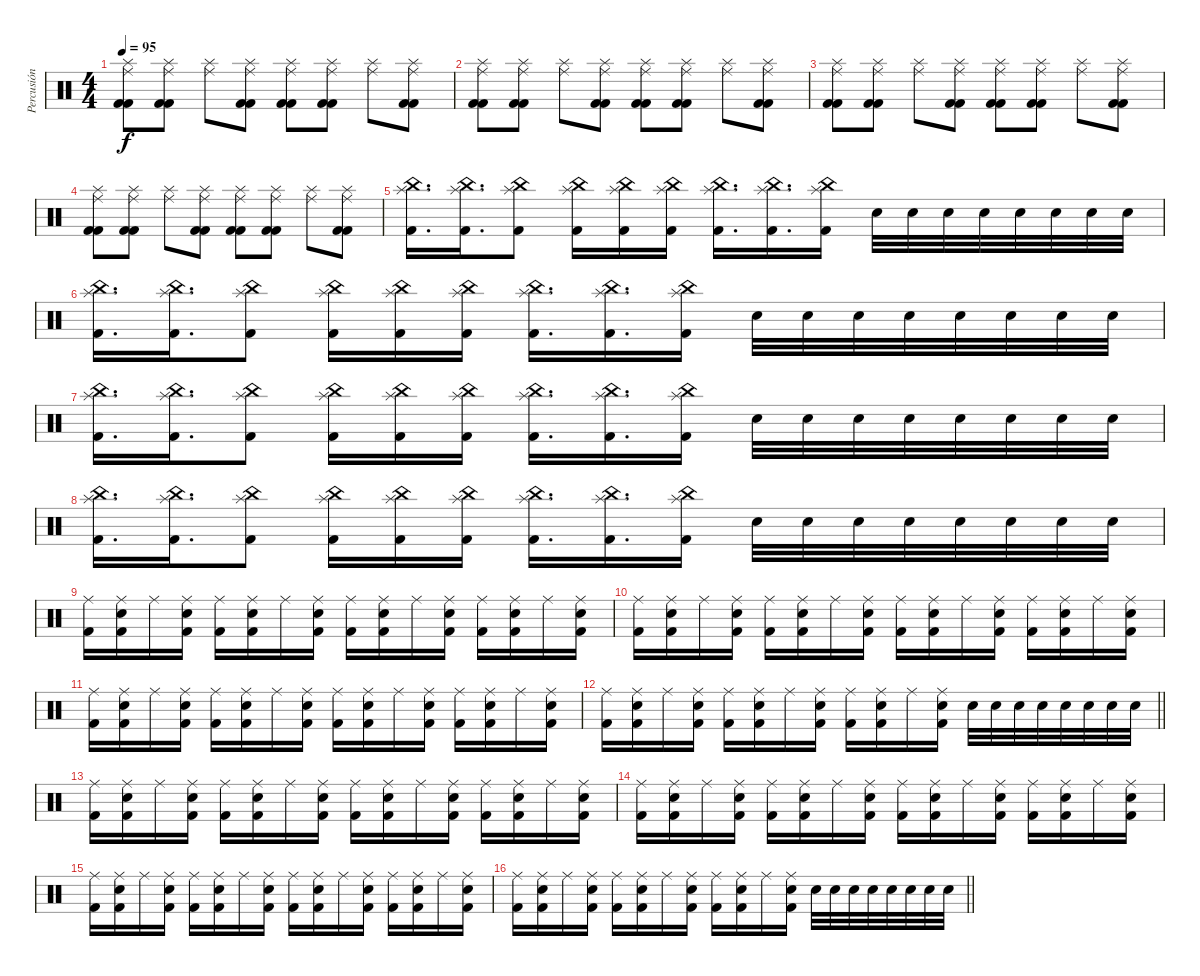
\track ("Percusión" "Percusión") {instrument percussion}
\staff {score}
\articulation defaults
\ts (4 4)
\tempo 95
\clef neutral
\ks c
("Splash (hit)" "Ride (middle)" "Kick (hit) 2" "Kick (hit) 2").8{dy f} ("Splash (hit)" "Ride (middle)" "Kick (hit) 2" "Kick (hit) 2").8 ("Splash (hit)" "Ride (middle)").8 ("Splash (hit)" "Ride (middle)" "Kick (hit) 2" "Kick (hit) 2").8 ("Splash (hit)" "Ride (middle)" "Kick (hit) 2" "Kick (hit) 2").8 ("Splash (hit)" "Ride (middle)" "Kick (hit) 2" "Kick (hit) 2").8 ("Splash (hit)" "Ride (middle)").8 ("Splash (hit)" "Ride (middle)" "Kick (hit) 2" "Kick (hit) 2").8 |
("Splash (hit)" "Ride (middle)" "Kick (hit) 2" "Kick (hit) 2").8 ("Splash (hit)" "Ride (middle)" "Kick (hit) 2" "Kick (hit) 2").8 ("Splash (hit)" "Ride (middle)").8 ("Splash (hit)" "Ride (middle)" "Kick (hit) 2" "Kick (hit) 2").8 ("Splash (hit)" "Ride (middle)" "Kick (hit) 2" "Kick (hit) 2").8 ("Splash (hit)" "Ride (middle)" "Kick (hit) 2" "Kick (hit) 2").8 ("Splash (hit)" "Ride (middle)").8 ("Splash (hit)" "Ride (middle)" "Kick (hit) 2" "Kick (hit) 2").8 |
("Splash (hit)" "Ride (middle)" "Kick (hit) 2" "Kick (hit) 2").8 ("Splash (hit)" "Ride (middle)" "Kick (hit) 2" "Kick (hit) 2").8 ("Splash (hit)" "Ride (middle)").8 ("Splash (hit)" "Ride (middle)" "Kick (hit) 2" "Kick (hit) 2").8 ("Splash (hit)" "Ride (middle)" "Kick (hit) 2" "Kick (hit) 2").8 ("Splash (hit)" "Ride (middle)" "Kick (hit) 2" "Kick (hit) 2").8 ("Splash (hit)" "Ride (middle)").8 ("Splash (hit)" "Ride (middle)" "Kick (hit) 2" "Kick (hit) 2").8 |
("Splash (hit)" "Ride (middle)" "Kick (hit) 2" "Kick (hit) 2").8 ("Splash (hit)" "Ride (middle)" "Kick (hit) 2" "Kick (hit) 2").8 ("Splash (hit)" "Ride (middle)").8 ("Splash (hit)" "Ride (middle)" "Kick (hit) 2" "Kick (hit) 2").8 ("Splash (hit)" "Ride (middle)" "Kick (hit) 2" "Kick (hit) 2").8 ("Splash (hit)" "Ride (middle)" "Kick (hit) 2" "Kick (hit) 2").8 ("Splash (hit)" "Ride (middle)").8 ("Splash (hit)" "Ride (middle)" "Kick (hit) 2" "Kick (hit) 2").8 |
("China (hit)" "Splash (hit)" "Kick (hit) 2").16{d} ("China (hit)" "Splash (hit)" "Kick (hit) 2").16{d} ("China (hit)" "Splash (hit)" "Kick (hit) 2").8 ("China (hit)" "Splash (hit)" "Kick (hit) 2").16 ("China (hit)" "Splash (hit)" "Kick (hit) 2").16 ("China (hit)" "Splash (hit)" "Kick (hit) 2").16 ("China (hit)" "Splash (hit)" "Kick (hit) 2").16{d} ("China (hit)" "Splash (hit)" "Kick (hit) 2").16{d} ("China (hit)" "Splash (hit)" "Kick (hit) 2").16 "Snare (hit) 2".32 "Snare (hit) 2".32 "Snare (hit) 2".32 "Snare (hit) 2".32 "Snare (hit) 2".32 "Snare (hit) 2".32 "Snare (hit) 2".32 "Snare (hit) 2".32 |
("China (hit)" "Splash (hit)" "Kick (hit) 2").16{d} ("China (hit)" "Splash (hit)" "Kick (hit) 2").16{d} ("China (hit)" "Splash (hit)" "Kick (hit) 2").8 ("China (hit)" "Splash (hit)" "Kick (hit) 2").16 ("China (hit)" "Splash (hit)" "Kick (hit) 2").16 ("China (hit)" "Splash (hit)" "Kick (hit) 2").16 ("China (hit)" "Splash (hit)" "Kick (hit) 2").16{d} ("China (hit)" "Splash (hit)" "Kick (hit) 2").16{d} ("China (hit)" "Splash (hit)" "Kick (hit) 2").16 "Snare (hit) 2".32 "Snare (hit) 2".32 "Snare (hit) 2".32 "Snare (hit) 2".32 "Snare (hit) 2".32 "Snare (hit) 2".32 "Snare (hit) 2".32 "Snare (hit) 2".32 |
("China (hit)" "Splash (hit)" "Kick (hit) 2").16{d} ("China (hit)" "Splash (hit)" "Kick (hit) 2").16{d} ("China (hit)" "Splash (hit)" "Kick (hit) 2").8 ("China (hit)" "Splash (hit)" "Kick (hit) 2").16 ("China (hit)" "Splash (hit)" "Kick (hit) 2").16 ("China (hit)" "Splash (hit)" "Kick (hit) 2").16 ("China (hit)" "Splash (hit)" "Kick (hit) 2").16{d} ("China (hit)" "Splash (hit)" "Kick (hit) 2").16{d} ("China (hit)" "Splash (hit)" "Kick (hit) 2").16 "Snare (hit) 2".32 "Snare (hit) 2".32 "Snare (hit) 2".32 "Snare (hit) 2".32 "Snare (hit) 2".32 "Snare (hit) 2".32 "Snare (hit) 2".32 "Snare (hit) 2".32 |
("China (hit)" "Splash (hit)" "Kick (hit) 2").16{d} ("China (hit)" "Splash (hit)" "Kick (hit) 2").16{d} ("China (hit)" "Splash (hit)" "Kick (hit) 2").8 ("China (hit)" "Splash (hit)" "Kick (hit) 2").16 ("China (hit)" "Splash (hit)" "Kick (hit) 2").16 ("China (hit)" "Splash (hit)" "Kick (hit) 2").16 ("China (hit)" "Splash (hit)" "Kick (hit) 2").16{d} ("China (hit)" "Splash (hit)" "Kick (hit) 2").16{d} ("China (hit)" "Splash (hit)" "Kick (hit) 2").16 "Snare (hit) 2".32 "Snare (hit) 2".32 "Snare (hit) 2".32 "Snare (hit) 2".32 "Snare (hit) 2".32 "Snare (hit) 2".32 "Snare (hit) 2".32 "Snare (hit) 2".32 |
("Ride (middle)" "Kick (hit) 2").16 ("Ride (middle)" "Snare (hit) 2" "Kick (hit) 2").16 "Ride (middle)".16 ("Ride (middle)" "Snare (hit) 2" "Kick (hit) 2").16 ("Ride (middle)" "Kick (hit) 2").16 ("Ride (middle)" "Snare (hit) 2" "Kick (hit) 2").16 "Ride (middle)".16 ("Ride (middle)" "Snare (hit) 2" "Kick (hit) 2").16 ("Ride (middle)" "Kick (hit) 2").16 ("Ride (middle)" "Snare (hit) 2" "Kick (hit) 2").16 "Ride (middle)".16 ("Ride (middle)" "Snare (hit) 2" "Kick (hit) 2").16 ("Ride (middle)" "Kick (hit) 2").16 ("Ride (middle)" "Snare (hit) 2" "Kick (hit) 2").16 "Ride (middle)".16 ("Ride (middle)" "Snare (hit) 2" "Kick (hit) 2").16 |
("Ride (middle)" "Kick (hit) 2").16 ("Ride (middle)" "Snare (hit) 2" "Kick (hit) 2").16 "Ride (middle)".16 ("Ride (middle)" "Snare (hit) 2" "Kick (hit) 2").16 ("Ride (middle)" "Kick (hit) 2").16 ("Ride (middle)" "Snare (hit) 2" "Kick (hit) 2").16 "Ride (middle)".16 ("Ride (middle)" "Snare (hit) 2" "Kick (hit) 2").16 ("Ride (middle)" "Kick (hit) 2").16 ("Ride (middle)" "Snare (hit) 2" "Kick (hit) 2").16 "Ride (middle)".16 ("Ride (middle)" "Snare (hit) 2" "Kick (hit) 2").16 ("Ride (middle)" "Kick (hit) 2").16 ("Ride (middle)" "Snare (hit) 2" "Kick (hit) 2").16 "Ride (middle)".16 ("Ride (middle)" "Snare (hit) 2" "Kick (hit) 2").16 |
("Ride (middle)" "Kick (hit) 2").16 ("Ride (middle)" "Snare (hit) 2" "Kick (hit) 2").16 "Ride (middle)".16 ("Ride (middle)" "Snare (hit) 2" "Kick (hit) 2").16 ("Ride (middle)" "Kick (hit) 2").16 ("Ride (middle)" "Snare (hit) 2" "Kick (hit) 2").16 "Ride (middle)".16 ("Ride (middle)" "Snare (hit) 2" "Kick (hit) 2").16 ("Ride (middle)" "Kick (hit) 2").16 ("Ride (middle)" "Snare (hit) 2" "Kick (hit) 2").16 "Ride (middle)".16 ("Ride (middle)" "Snare (hit) 2" "Kick (hit) 2").16 ("Ride (middle)" "Kick (hit) 2").16 ("Ride (middle)" "Snare (hit) 2" "Kick (hit) 2").16 "Ride (middle)".16 ("Ride (middle)" "Snare (hit) 2" "Kick (hit) 2").16 |
\barLineRight lightlight
("Ride (middle)" "Kick (hit) 2").16 ("Ride (middle)" "Snare (hit) 2" "Kick (hit) 2").16 "Ride (middle)".16 ("Ride (middle)" "Snare (hit) 2" "Kick (hit) 2").16 ("Ride (middle)" "Kick (hit) 2").16 ("Ride (middle)" "Snare (hit) 2" "Kick (hit) 2").16 "Ride (middle)".16 ("Ride (middle)" "Snare (hit) 2" "Kick (hit) 2").16 ("Ride (middle)" "Kick (hit) 2").16 ("Ride (middle)" "Snare (hit) 2" "Kick (hit) 2").16 "Ride (middle)".16 ("Ride (middle)" "Snare (hit) 2" "Kick (hit) 2").16 "Snare (hit) 2".32 "Snare (hit) 2".32 "Snare (hit) 2".32 "Snare (hit) 2".32 "Snare (hit) 2".32 "Snare (hit) 2".32 "Snare (hit) 2".32 "Snare (hit) 2".32 |
("Ride (middle)" "Kick (hit) 2").16 ("Ride (middle)" "Snare (hit) 2" "Kick (hit) 2").16 "Ride (middle)".16 ("Ride (middle)" "Snare (hit) 2" "Kick (hit) 2").16 ("Ride (middle)" "Kick (hit) 2").16 ("Ride (middle)" "Snare (hit) 2" "Kick (hit) 2").16 "Ride (middle)".16 ("Ride (middle)" "Snare (hit) 2" "Kick (hit) 2").16 ("Ride (middle)" "Kick (hit) 2").16 ("Ride (middle)" "Snare (hit) 2" "Kick (hit) 2").16 "Ride (middle)".16 ("Ride (middle)" "Snare (hit) 2" "Kick (hit) 2").16 ("Ride (middle)" "Kick (hit) 2").16 ("Ride (middle)" "Snare (hit) 2" "Kick (hit) 2").16 "Ride (middle)".16 ("Ride (middle)" "Snare (hit) 2" "Kick (hit) 2").16 |
("Ride (middle)" "Kick (hit) 2").16 ("Ride (middle)" "Snare (hit) 2" "Kick (hit) 2").16 "Ride (middle)".16 ("Ride (middle)" "Snare (hit) 2" "Kick (hit) 2").16 ("Ride (middle)" "Kick (hit) 2").16 ("Ride (middle)" "Snare (hit) 2" "Kick (hit) 2").16 "Ride (middle)".16 ("Ride (middle)" "Snare (hit) 2" "Kick (hit) 2").16 ("Ride (middle)" "Kick (hit) 2").16 ("Ride (middle)" "Snare (hit) 2" "Kick (hit) 2").16 "Ride (middle)".16 ("Ride (middle)" "Snare (hit) 2" "Kick (hit) 2").16 ("Ride (middle)" "Kick (hit) 2").16 ("Ride (middle)" "Snare (hit) 2" "Kick (hit) 2").16 "Ride (middle)".16 ("Ride (middle)" "Snare (hit) 2" "Kick (hit) 2").16 |
("Ride (middle)" "Kick (hit) 2").16 ("Ride (middle)" "Snare (hit) 2" "Kick (hit) 2").16 "Ride (middle)".16 ("Ride (middle)" "Snare (hit) 2" "Kick (hit) 2").16 ("Ride (middle)" "Kick (hit) 2").16 ("Ride (middle)" "Snare (hit) 2" "Kick (hit) 2").16 "Ride (middle)".16 ("Ride (middle)" "Snare (hit) 2" "Kick (hit) 2").16 ("Ride (middle)" "Kick (hit) 2").16 ("Ride (middle)" "Snare (hit) 2" "Kick (hit) 2").16 "Ride (middle)".16 ("Ride (middle)" "Snare (hit) 2" "Kick (hit) 2").16 ("Ride (middle)" "Kick (hit) 2").16 ("Ride (middle)" "Snare (hit) 2" "Kick (hit) 2").16 "Ride (middle)".16 ("Ride (middle)" "Snare (hit) 2" "Kick (hit) 2").16 |
\barLineRight lightlight
("Ride (middle)" "Kick (hit) 2").16 ("Ride (middle)" "Snare (hit) 2" "Kick (hit) 2").16 "Ride (middle)".16 ("Ride (middle)" "Snare (hit) 2" "Kick (hit) 2").16 ("Ride (middle)" "Kick (hit) 2").16 ("Ride (middle)" "Snare (hit) 2" "Kick (hit) 2").16 "Ride (middle)".16 ("Ride (middle)" "Snare (hit) 2" "Kick (hit) 2").16 ("Ride (middle)" "Kick (hit) 2").16 ("Ride (middle)" "Snare (hit) 2" "Kick (hit) 2").16 "Ride (middle)".16 ("Ride (middle)" "Snare (hit) 2" "Kick (hit) 2").16 "Snare (hit) 2".32 "Snare (hit) 2".32 "Snare (hit) 2".32 "Snare (hit) 2".32 "Snare (hit) 2".32 "Snare (hit) 2".32 "Snare (hit) 2".32 "Snare (hit) 2".32
